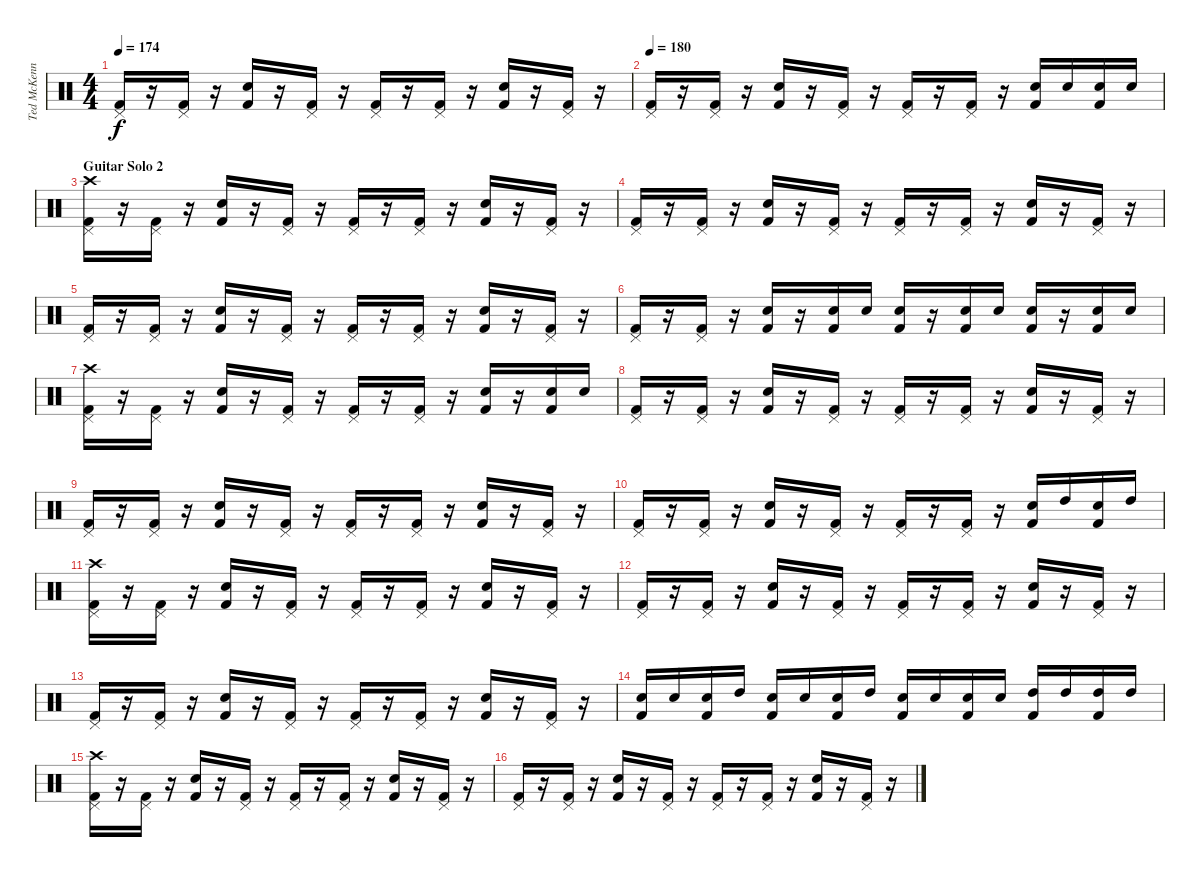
\track ("Ted McKenna" "Ted McKenn") {instrument percussion}
\staff {score}
\articulation defaults
\ts (4 4)
\tempo 174
\clef neutral
\ks c
("Pedal Hi-Hat (hit)" "Kick (hit) 2").16{dy f} r.16 ("Pedal Hi-Hat (hit)" "Kick (hit) 2").16 r.16 ("Snare (hit) 2" "Kick (hit) 2").16 r.16 ("Pedal Hi-Hat (hit)" "Kick (hit) 2").16 r.16 ("Pedal Hi-Hat (hit)" "Kick (hit) 2").16 r.16 ("Pedal Hi-Hat (hit)" "Kick (hit) 2").16 r.16 ("Snare (hit) 2" "Kick (hit) 2").16 r.16 ("Pedal Hi-Hat (hit)" "Kick (hit) 2").16 r.16 |
\tempo 180
("Pedal Hi-Hat (hit)" "Kick (hit) 2").16 r.16 ("Pedal Hi-Hat (hit)" "Kick (hit) 2").16 r.16 ("Snare (hit) 2" "Kick (hit) 2").16 r.16 ("Pedal Hi-Hat (hit)" "Kick (hit) 2").16 r.16 ("Pedal Hi-Hat (hit)" "Kick (hit) 2").16 r.16 ("Pedal Hi-Hat (hit)" "Kick (hit) 2").16 r.16 ("Electric Snare (hit)" "Kick (hit) 2").16 "Electric Snare (hit)".16 ("Electric Snare (hit)" "Kick (hit) 2").16 "Electric Snare (hit)".16 |
\section ("" "Guitar Solo 2")
("Crash high (hit)" "Pedal Hi-Hat (hit)" "Kick (hit) 2").16 r.16 ("Pedal Hi-Hat (hit)" "Kick (hit) 2").16 r.16 ("Snare (hit) 2" "Kick (hit) 2").16 r.16 ("Pedal Hi-Hat (hit)" "Kick (hit) 2").16 r.16 ("Pedal Hi-Hat (hit)" "Kick (hit) 2").16 r.16 ("Pedal Hi-Hat (hit)" "Kick (hit) 2").16 r.16 ("Snare (hit) 2" "Kick (hit) 2").16 r.16 ("Pedal Hi-Hat (hit)" "Kick (hit) 2").16 r.16 |
("Pedal Hi-Hat (hit)" "Kick (hit) 2").16 r.16 ("Pedal Hi-Hat (hit)" "Kick (hit) 2").16 r.16 ("Snare (hit) 2" "Kick (hit) 2").16 r.16 ("Pedal Hi-Hat (hit)" "Kick (hit) 2").16 r.16 ("Pedal Hi-Hat (hit)" "Kick (hit) 2").16 r.16 ("Pedal Hi-Hat (hit)" "Kick (hit) 2").16 r.16 ("Snare (hit) 2" "Kick (hit) 2").16 r.16 ("Pedal Hi-Hat (hit)" "Kick (hit) 2").16 r.16 |
("Pedal Hi-Hat (hit)" "Kick (hit) 2").16 r.16 ("Pedal Hi-Hat (hit)" "Kick (hit) 2").16 r.16 ("Snare (hit) 2" "Kick (hit) 2").16 r.16 ("Pedal Hi-Hat (hit)" "Kick (hit) 2").16 r.16 ("Pedal Hi-Hat (hit)" "Kick (hit) 2").16 r.16 ("Pedal Hi-Hat (hit)" "Kick (hit) 2").16 r.16 ("Snare (hit) 2" "Kick (hit) 2").16 r.16 ("Pedal Hi-Hat (hit)" "Kick (hit) 2").16 r.16 |
("Pedal Hi-Hat (hit)" "Kick (hit) 2").16 r.16 ("Pedal Hi-Hat (hit)" "Kick (hit) 2").16 r.16 ("Snare (hit) 2" "Kick (hit) 2").16 r.16 ("Electric Snare (hit)" "Kick (hit) 2").16 "Electric Snare (hit)".16 ("Snare (hit) 2" "Kick (hit) 2").16 r.16 ("Electric Snare (hit)" "Kick (hit) 2").16 "Electric Snare (hit)".16 ("Snare (hit) 2" "Kick (hit) 2").16 r.16 ("Electric Snare (hit)" "Kick (hit) 2").16 "Electric Snare (hit)".16 |
("Crash high (hit)" "Pedal Hi-Hat (hit)" "Kick (hit) 2").16 r.16 ("Pedal Hi-Hat (hit)" "Kick (hit) 2").16 r.16 ("Snare (hit) 2" "Kick (hit) 2").16 r.16 ("Pedal Hi-Hat (hit)" "Kick (hit) 2").16 r.16 ("Pedal Hi-Hat (hit)" "Kick (hit) 2").16 r.16 ("Pedal Hi-Hat (hit)" "Kick (hit) 2").16 r.16 ("Snare (hit) 2" "Kick (hit) 2").16 r.16 ("Electric Snare (hit)" "Kick (hit) 2").16 "Electric Snare (hit)".16 |
("Pedal Hi-Hat (hit)" "Kick (hit) 2").16 r.16 ("Pedal Hi-Hat (hit)" "Kick (hit) 2").16 r.16 ("Snare (hit) 2" "Kick (hit) 2").16 r.16 ("Pedal Hi-Hat (hit)" "Kick (hit) 2").16 r.16 ("Pedal Hi-Hat (hit)" "Kick (hit) 2").16 r.16 ("Pedal Hi-Hat (hit)" "Kick (hit) 2").16 r.16 ("Snare (hit) 2" "Kick (hit) 2").16 r.16 ("Pedal Hi-Hat (hit)" "Kick (hit) 2").16 r.16 |
("Pedal Hi-Hat (hit)" "Kick (hit) 2").16 r.16 ("Pedal Hi-Hat (hit)" "Kick (hit) 2").16 r.16 ("Snare (hit) 2" "Kick (hit) 2").16 r.16 ("Pedal Hi-Hat (hit)" "Kick (hit) 2").16 r.16 ("Pedal Hi-Hat (hit)" "Kick (hit) 2").16 r.16 ("Pedal Hi-Hat (hit)" "Kick (hit) 2").16 r.16 ("Snare (hit) 2" "Kick (hit) 2").16 r.16 ("Pedal Hi-Hat (hit)" "Kick (hit) 2").16 r.16 |
("Pedal Hi-Hat (hit)" "Kick (hit) 2").16 r.16 ("Pedal Hi-Hat (hit)" "Kick (hit) 2").16 r.16 ("Snare (hit) 2" "Kick (hit) 2").16 r.16 ("Pedal Hi-Hat (hit)" "Kick (hit) 2").16 r.16 ("Pedal Hi-Hat (hit)" "Kick (hit) 2").16 r.16 ("Pedal Hi-Hat (hit)" "Kick (hit) 2").16 r.16 ("Electric Snare (hit)" "Kick (hit) 2").16 "High Tom (hit)".16 ("Electric Snare (hit)" "Kick (hit) 2").16 "High Tom (hit)".16 |
("Crash high (hit)" "Pedal Hi-Hat (hit)" "Kick (hit) 2").16 r.16 ("Pedal Hi-Hat (hit)" "Kick (hit) 2").16 r.16 ("Snare (hit) 2" "Kick (hit) 2").16 r.16 ("Pedal Hi-Hat (hit)" "Kick (hit) 2").16 r.16 ("Pedal Hi-Hat (hit)" "Kick (hit) 2").16 r.16 ("Pedal Hi-Hat (hit)" "Kick (hit) 2").16 r.16 ("Snare (hit) 2" "Kick (hit) 2").16 r.16 ("Pedal Hi-Hat (hit)" "Kick (hit) 2").16 r.16 |
("Pedal Hi-Hat (hit)" "Kick (hit) 2").16 r.16 ("Pedal Hi-Hat (hit)" "Kick (hit) 2").16 r.16 ("Snare (hit) 2" "Kick (hit) 2").16 r.16 ("Pedal Hi-Hat (hit)" "Kick (hit) 2").16 r.16 ("Pedal Hi-Hat (hit)" "Kick (hit) 2").16 r.16 ("Pedal Hi-Hat (hit)" "Kick (hit) 2").16 r.16 ("Snare (hit) 2" "Kick (hit) 2").16 r.16 ("Pedal Hi-Hat (hit)" "Kick (hit) 2").16 r.16 |
("Pedal Hi-Hat (hit)" "Kick (hit) 2").16 r.16 ("Pedal Hi-Hat (hit)" "Kick (hit) 2").16 r.16 ("Snare (hit) 2" "Kick (hit) 2").16 r.16 ("Pedal Hi-Hat (hit)" "Kick (hit) 2").16 r.16 ("Pedal Hi-Hat (hit)" "Kick (hit) 2").16 r.16 ("Pedal Hi-Hat (hit)" "Kick (hit) 2").16 r.16 ("Snare (hit) 2" "Kick (hit) 2").16 r.16 ("Pedal Hi-Hat (hit)" "Kick (hit) 2").16 r.16 |
("Electric Snare (hit)" "Kick (hit) 2").16 "Electric Snare (hit)".16 ("Snare (hit) 2" "Kick (hit) 2").16 "High Tom (hit)".16 ("Electric Snare (hit)" "Kick (hit) 2").16 "Electric Snare (hit)".16 ("Snare (hit) 2" "Kick (hit) 2").16 "High Tom (hit)".16 ("Electric Snare (hit)" "Kick (hit) 2").16 "Electric Snare (hit)".16 ("Electric Snare (hit)" "Kick (hit) 2").16 "Electric Snare (hit)".16 ("High Tom (hit)" "Kick (hit) 2").16 "High Tom (hit)".16 ("High Tom (hit)" "Kick (hit) 2").16 "High Tom (hit)".16 |
("Crash high (hit)" "Pedal Hi-Hat (hit)" "Kick (hit) 2").16 r.16 ("Pedal Hi-Hat (hit)" "Kick (hit) 2").16 r.16 ("Snare (hit) 2" "Kick (hit) 2").16 r.16 ("Pedal Hi-Hat (hit)" "Kick (hit) 2").16 r.16 ("Pedal Hi-Hat (hit)" "Kick (hit) 2").16 r.16 ("Pedal Hi-Hat (hit)" "Kick (hit) 2").16 r.16 ("Snare (hit) 2" "Kick (hit) 2").16 r.16 ("Pedal Hi-Hat (hit)" "Kick (hit) 2").16 r.16 |
("Pedal Hi-Hat (hit)" "Kick (hit) 2").16 r.16 ("Pedal Hi-Hat (hit)" "Kick (hit) 2").16 r.16 ("Snare (hit) 2" "Kick (hit) 2").16 r.16 ("Pedal Hi-Hat (hit)" "Kick (hit) 2").16 r.16 ("Pedal Hi-Hat (hit)" "Kick (hit) 2").16 r.16 ("Pedal Hi-Hat (hit)" "Kick (hit) 2").16 r.16 ("Snare (hit) 2" "Kick (hit) 2").16 r.16 ("Pedal Hi-Hat (hit)" "Kick (hit) 2").16 r.16
